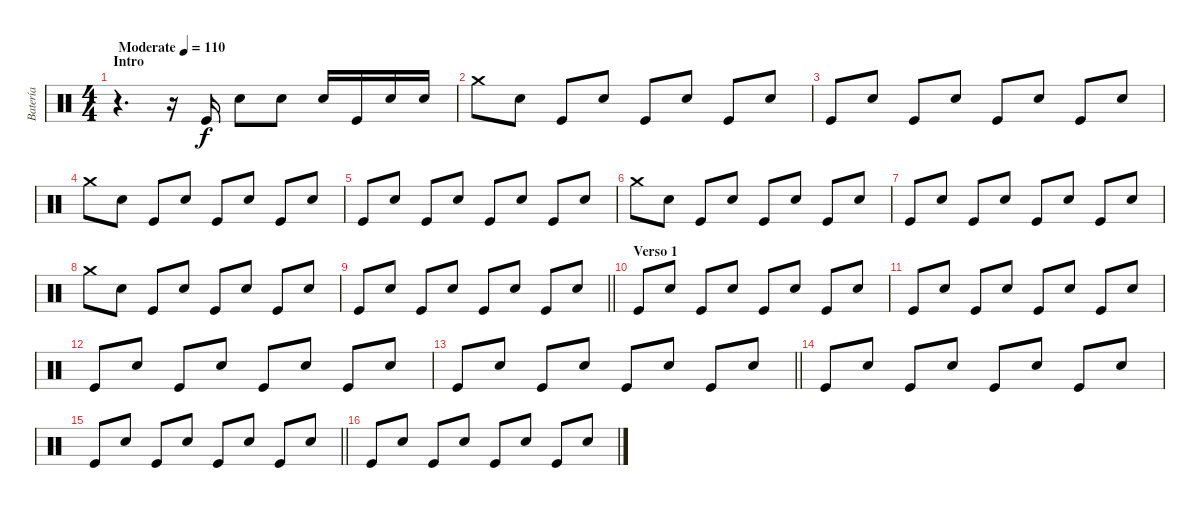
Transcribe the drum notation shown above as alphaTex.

\track ("Batería" "Batería") {instrument percussion}
\staff {score}
\articulation defaults
\ts (4 4)
\section ("" "Intro")
\tempo (110 "Moderate")
\clef neutral
\ks c
r.4{d dy f} r.16 "Kick (hit)".16 "Electric Snare (hit)".8 "Electric Snare (hit)".8 "Electric Snare (hit)".16 "Kick (hit)".16 "Electric Snare (hit)".16 "Electric Snare (hit)".16 |
"Crash medium (hit)".8 "Electric Snare (hit)".8 "Kick (hit)".8 "Electric Snare (hit)".8 "Kick (hit)".8 "Electric Snare (hit)".8 "Kick (hit)".8 "Electric Snare (hit)".8 |
"Kick (hit)".8 "Electric Snare (hit)".8 "Kick (hit)".8 "Electric Snare (hit)".8 "Kick (hit)".8 "Electric Snare (hit)".8 "Kick (hit)".8 "Electric Snare (hit)".8 |
"Crash medium (hit)".8 "Electric Snare (hit)".8 "Kick (hit)".8 "Electric Snare (hit)".8 "Kick (hit)".8 "Electric Snare (hit)".8 "Kick (hit)".8 "Electric Snare (hit)".8 |
"Kick (hit)".8 "Electric Snare (hit)".8 "Kick (hit)".8 "Electric Snare (hit)".8 "Kick (hit)".8 "Electric Snare (hit)".8 "Kick (hit)".8 "Electric Snare (hit)".8 |
"Crash medium (hit)".8 "Electric Snare (hit)".8 "Kick (hit)".8 "Electric Snare (hit)".8 "Kick (hit)".8 "Electric Snare (hit)".8 "Kick (hit)".8 "Electric Snare (hit)".8 |
"Kick (hit)".8 "Electric Snare (hit)".8 "Kick (hit)".8 "Electric Snare (hit)".8 "Kick (hit)".8 "Electric Snare (hit)".8 "Kick (hit)".8 "Electric Snare (hit)".8 |
"Crash medium (hit)".8 "Electric Snare (hit)".8 "Kick (hit)".8 "Electric Snare (hit)".8 "Kick (hit)".8 "Electric Snare (hit)".8 "Kick (hit)".8 "Electric Snare (hit)".8 |
\barLineRight lightlight "Kick (hit)".8 "Electric Snare (hit)".8 "Kick (hit)".8 "Electric Snare (hit)".8 "Kick (hit)".8 "Electric Snare (hit)".8 "Kick (hit)".8 "Electric Snare (hit)".8
|
\section ("" "Verso 1")
"Kick (hit)".8 "Electric Snare (hit)".8 "Kick (hit)".8 "Electric Snare (hit)".8 "Kick (hit)".8 "Electric Snare (hit)".8 "Kick (hit)".8 "Electric Snare (hit)".8 |
"Kick (hit)".8 "Electric Snare (hit)".8 "Kick (hit)".8 "Electric Snare (hit)".8 "Kick (hit)".8 "Electric Snare (hit)".8 "Kick (hit)".8 "Electric Snare (hit)".8 |
"Kick (hit)".8 "Electric Snare (hit)".8 "Kick (hit)".8 "Electric Snare (hit)".8 "Kick (hit)".8 "Electric Snare (hit)".8 "Kick (hit)".8 "Electric Snare (hit)".8 |
\barLineRight lightlight "Kick (hit)".8 "Electric Snare (hit)".8 "Kick (hit)".8 "Electric Snare (hit)".8 "Kick (hit)".8 "Electric Snare (hit)".8 "Kick (hit)".8 "Electric Snare (hit)".8
|
"Kick (hit)".8 "Electric Snare (hit)".8 "Kick (hit)".8 "Electric Snare (hit)".8 "Kick (hit)".8 "Electric Snare (hit)".8 "Kick (hit)".8 "Electric Snare (hit)".8 |
\barLineRight lightlight "Kick (hit)".8 "Electric Snare (hit)".8 "Kick (hit)".8 "Electric Snare (hit)".8 "Kick (hit)".8 "Electric Snare (hit)".8 "Kick (hit)".8 "Electric Snare (hit)".8
|
"Kick (hit)".8 "Electric Snare (hit)".8 "Kick (hit)".8 "Electric Snare (hit)".8 "Kick (hit)".8 "Electric Snare (hit)".8 "Kick (hit)".8 "Electric Snare (hit)".8
